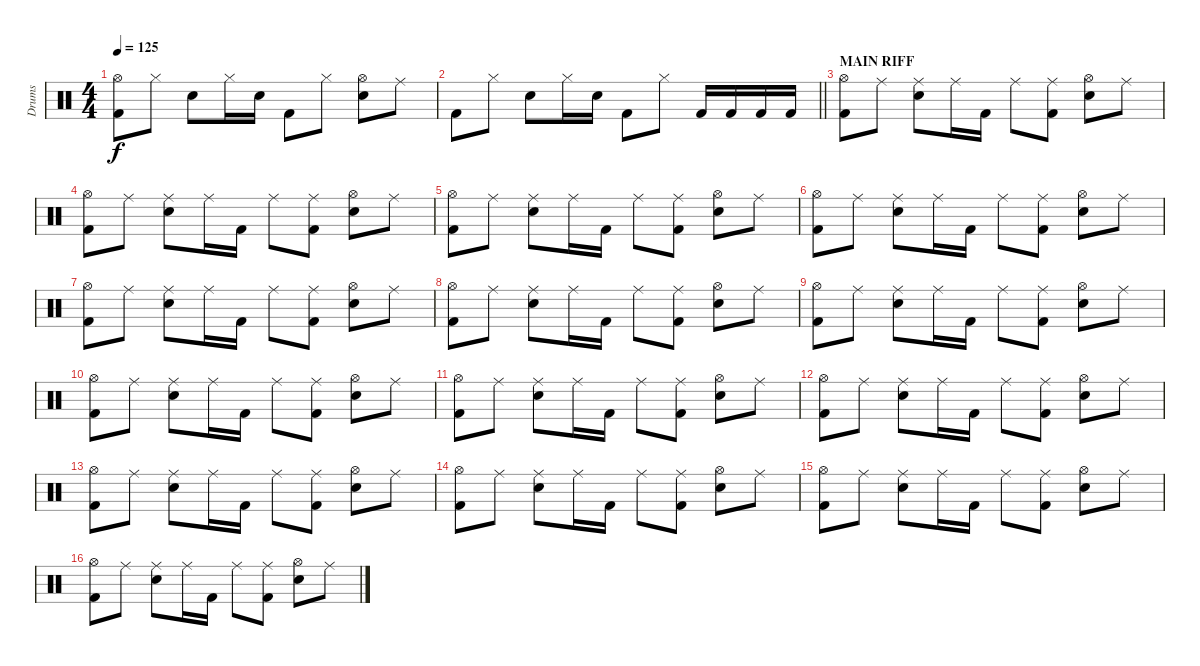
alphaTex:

\track ("Drums" "Drums") {instrument percussion}
\staff {score}
\articulation defaults
\ts (4 4)
\tempo 125
\clef neutral
\ks c
("Hi-Hat (open)" "Kick (hit) 2").8{dy f} "Hi-Hat (closed)".8 "Snare (hit) 2".8 "Hi-Hat (closed)".16 "Snare (hit) 2".16 "Kick (hit) 2".8 "Hi-Hat (closed)".8 ("Hi-Hat (open)" "Snare (hit) 2").8 "Ride (middle)".8 |
\barLineRight lightlight "Kick (hit) 2".8 "Hi-Hat (closed)".8 "Snare (hit) 2".8 "Hi-Hat (closed)".16 "Snare (hit) 2".16 "Kick (hit) 2".8 "Hi-Hat (closed)".8 "Kick (hit) 2".16 "Kick (hit) 2".16 "Kick (hit) 2".16 "Kick (hit) 2".16
|
\section ("" "MAIN RIFF")
("Hi-Hat (open)" "Kick (hit) 2").8 "Ride (middle)".8 ("Ride (middle)" "Snare (hit) 2").8 "Ride (middle)".16 "Kick (hit) 2".16 "Ride (middle)".8 ("Ride (middle)" "Kick (hit) 2").8 ("Hi-Hat (open)" "Snare (hit) 2").8 "Ride (middle)".8 |
("Hi-Hat (open)" "Kick (hit) 2").8 "Ride (middle)".8 ("Ride (middle)" "Snare (hit) 2").8 "Ride (middle)".16 "Kick (hit) 2".16 "Ride (middle)".8 ("Ride (middle)" "Kick (hit) 2").8 ("Hi-Hat (open)" "Snare (hit) 2").8 "Ride (middle)".8 |
("Hi-Hat (open)" "Kick (hit) 2").8 "Ride (middle)".8 ("Ride (middle)" "Snare (hit) 2").8 "Ride (middle)".16 "Kick (hit) 2".16 "Ride (middle)".8 ("Ride (middle)" "Kick (hit) 2").8 ("Hi-Hat (open)" "Snare (hit) 2").8 "Ride (middle)".8 |
("Hi-Hat (open)" "Kick (hit) 2").8 "Ride (middle)".8 ("Ride (middle)" "Snare (hit) 2").8 "Ride (middle)".16 "Kick (hit) 2".16 "Ride (middle)".8 ("Ride (middle)" "Kick (hit) 2").8 ("Hi-Hat (open)" "Snare (hit) 2").8 "Ride (middle)".8 |
("Hi-Hat (open)" "Kick (hit) 2").8 "Ride (middle)".8 ("Ride (middle)" "Snare (hit) 2").8 "Ride (middle)".16 "Kick (hit) 2".16 "Ride (middle)".8 ("Ride (middle)" "Kick (hit) 2").8 ("Hi-Hat (open)" "Snare (hit) 2").8 "Ride (middle)".8 |
("Hi-Hat (open)" "Kick (hit) 2").8 "Ride (middle)".8 ("Ride (middle)" "Snare (hit) 2").8 "Ride (middle)".16 "Kick (hit) 2".16 "Ride (middle)".8 ("Ride (middle)" "Kick (hit) 2").8 ("Hi-Hat (open)" "Snare (hit) 2").8 "Ride (middle)".8 |
("Hi-Hat (open)" "Kick (hit) 2").8 "Ride (middle)".8 ("Ride (middle)" "Snare (hit) 2").8 "Ride (middle)".16 "Kick (hit) 2".16 "Ride (middle)".8 ("Ride (middle)" "Kick (hit) 2").8 ("Hi-Hat (open)" "Snare (hit) 2").8 "Ride (middle)".8 |
("Hi-Hat (open)" "Kick (hit) 2").8 "Ride (middle)".8 ("Ride (middle)" "Snare (hit) 2").8 "Ride (middle)".16 "Kick (hit) 2".16 "Ride (middle)".8 ("Ride (middle)" "Kick (hit) 2").8 ("Hi-Hat (open)" "Snare (hit) 2").8 "Ride (middle)".8 |
("Hi-Hat (open)" "Kick (hit) 2").8 "Ride (middle)".8 ("Ride (middle)" "Snare (hit) 2").8 "Ride (middle)".16 "Kick (hit) 2".16 "Ride (middle)".8 ("Ride (middle)" "Kick (hit) 2").8 ("Hi-Hat (open)" "Snare (hit) 2").8 "Ride (middle)".8 |
("Hi-Hat (open)" "Kick (hit) 2").8 "Ride (middle)".8 ("Ride (middle)" "Snare (hit) 2").8 "Ride (middle)".16 "Kick (hit) 2".16 "Ride (middle)".8 ("Ride (middle)" "Kick (hit) 2").8 ("Hi-Hat (open)" "Snare (hit) 2").8 "Ride (middle)".8 |
("Hi-Hat (open)" "Kick (hit) 2").8 "Ride (middle)".8 ("Ride (middle)" "Snare (hit) 2").8 "Ride (middle)".16 "Kick (hit) 2".16 "Ride (middle)".8 ("Ride (middle)" "Kick (hit) 2").8 ("Hi-Hat (open)" "Snare (hit) 2").8 "Ride (middle)".8 |
("Hi-Hat (open)" "Kick (hit) 2").8 "Ride (middle)".8 ("Ride (middle)" "Snare (hit) 2").8 "Ride (middle)".16 "Kick (hit) 2".16 "Ride (middle)".8 ("Ride (middle)" "Kick (hit) 2").8 ("Hi-Hat (open)" "Snare (hit) 2").8 "Ride (middle)".8 |
("Hi-Hat (open)" "Kick (hit) 2").8 "Ride (middle)".8 ("Ride (middle)" "Snare (hit) 2").8 "Ride (middle)".16 "Kick (hit) 2".16 "Ride (middle)".8 ("Ride (middle)" "Kick (hit) 2").8 ("Hi-Hat (open)" "Snare (hit) 2").8 "Ride (middle)".8 |
("Hi-Hat (open)" "Kick (hit) 2").8 "Ride (middle)".8 ("Ride (middle)" "Snare (hit) 2").8 "Ride (middle)".16 "Kick (hit) 2".16 "Ride (middle)".8 ("Ride (middle)" "Kick (hit) 2").8 ("Hi-Hat (open)" "Snare (hit) 2").8 "Ride (middle)".8
